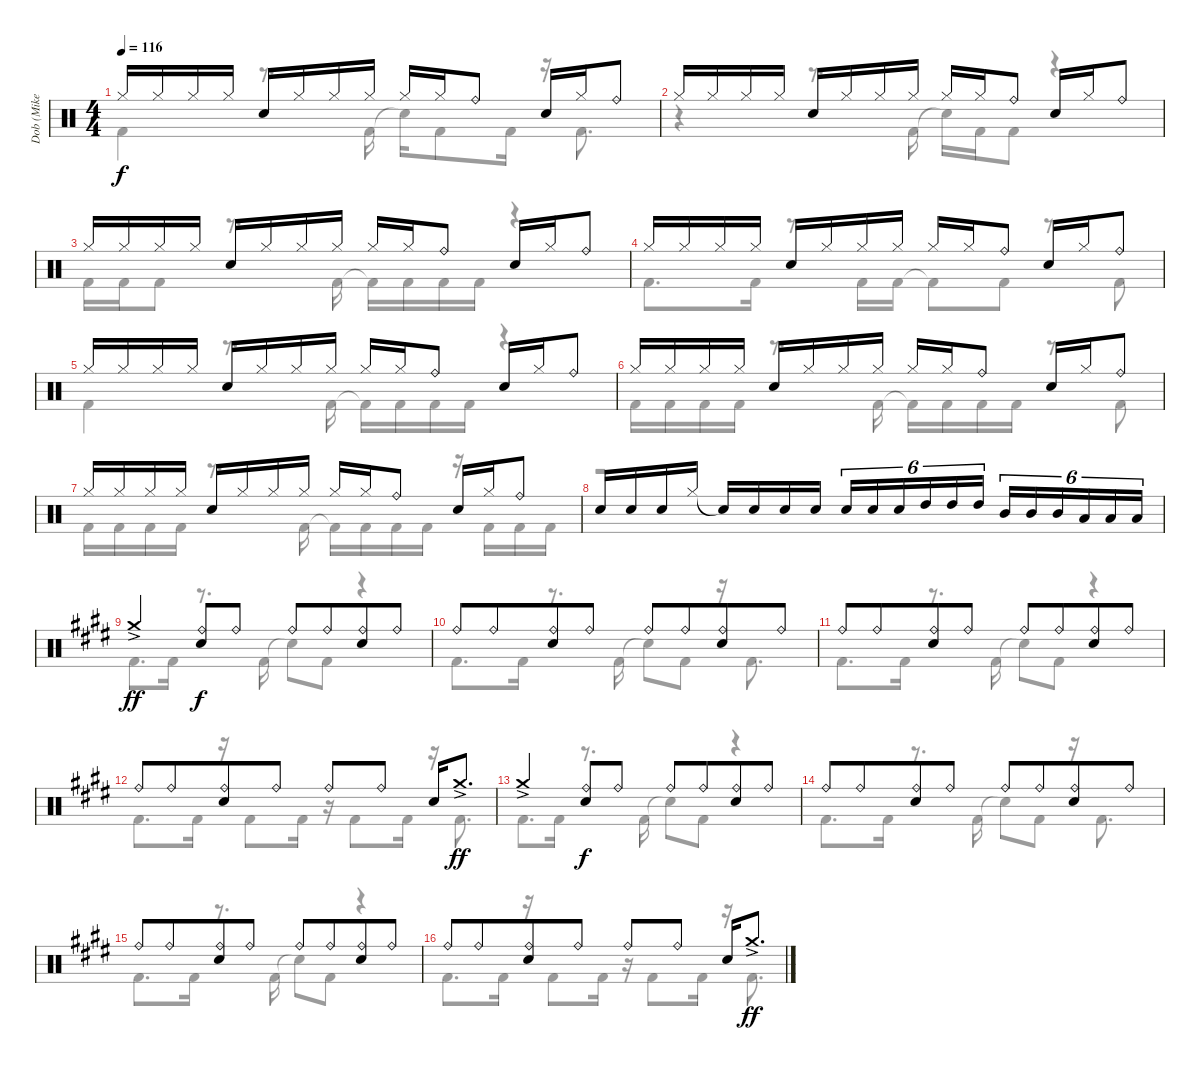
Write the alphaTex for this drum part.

\track ("Dob (Mike Terrana)" "Dob (Mike ") {instrument percussion}
\staff {score}
\articulation defaults
\voice
\ts (4 4)
\tempo 116
\clef neutral
\ks c "Hi-Hat (closed)".16{dy f} "Hi-Hat (closed)".16 "Hi-Hat (closed)".16 "Hi-Hat (closed)".16 "Electric Snare (hit)".16 "Hi-Hat (closed)".16 "Hi-Hat (closed)".16 "Hi-Hat (closed)".16 "Hi-Hat (closed)".16 "Hi-Hat (closed)".16 "Ride (bell)".8 "Electric Snare (hit)".16 "Hi-Hat (closed)".16 "Ride (bell)".8
|
"Hi-Hat (closed)".16 "Hi-Hat (closed)".16 "Hi-Hat (closed)".16 "Hi-Hat (closed)".16 "Electric Snare (hit)".16 "Hi-Hat (closed)".16 "Hi-Hat (closed)".16 "Hi-Hat (closed)".16 "Hi-Hat (closed)".16 "Hi-Hat (closed)".16 "Ride (bell)".8 "Electric Snare (hit)".16 "Hi-Hat (closed)".16 "Ride (bell)".8 |
"Hi-Hat (closed)".16 "Hi-Hat (closed)".16 "Hi-Hat (closed)".16 "Hi-Hat (closed)".16 "Electric Snare (hit)".16 "Hi-Hat (closed)".16 "Hi-Hat (closed)".16 "Hi-Hat (closed)".16 "Hi-Hat (closed)".16 "Hi-Hat (closed)".16 "Ride (bell)".8 "Electric Snare (hit)".16 "Hi-Hat (closed)".16 "Ride (bell)".8 |
"Hi-Hat (closed)".16 "Hi-Hat (closed)".16 "Hi-Hat (closed)".16 "Hi-Hat (closed)".16 "Electric Snare (hit)".16 "Hi-Hat (closed)".16 "Hi-Hat (closed)".16 "Hi-Hat (closed)".16 "Hi-Hat (closed)".16 "Hi-Hat (closed)".16 "Ride (bell)".8 "Electric Snare (hit)".16 "Hi-Hat (closed)".16 "Ride (bell)".8 |
"Hi-Hat (closed)".16 "Hi-Hat (closed)".16 "Hi-Hat (closed)".16 "Hi-Hat (closed)".16 "Electric Snare (hit)".16 "Hi-Hat (closed)".16 "Hi-Hat (closed)".16 "Hi-Hat (closed)".16 "Hi-Hat (closed)".16 "Hi-Hat (closed)".16 "Ride (bell)".8 "Electric Snare (hit)".16 "Hi-Hat (closed)".16 "Ride (bell)".8 |
"Hi-Hat (closed)".16 "Hi-Hat (closed)".16 "Hi-Hat (closed)".16 "Hi-Hat (closed)".16 "Electric Snare (hit)".16 "Hi-Hat (closed)".16 "Hi-Hat (closed)".16 "Hi-Hat (closed)".16 "Hi-Hat (closed)".16 "Hi-Hat (closed)".16 "Ride (bell)".8 "Electric Snare (hit)".16 "Hi-Hat (closed)".16 "Ride (bell)".8 |
"Hi-Hat (closed)".16 "Hi-Hat (closed)".16 "Hi-Hat (closed)".16 "Hi-Hat (closed)".16 "Electric Snare (hit)".16 "Hi-Hat (closed)".16 "Hi-Hat (closed)".16 "Hi-Hat (closed)".16 "Hi-Hat (closed)".16 "Hi-Hat (closed)".16 "Ride (bell)".8 "Electric Snare (hit)".16 "Hi-Hat (closed)".16 "Ride (bell)".8 |
"Electric Snare (hit)".16 "Electric Snare (hit)".16 "Electric Snare (hit)".16 "Hi-Hat (closed)".16 "Snare (hit)"{t}.16 "Electric Snare (hit)".16 "Electric Snare (hit)".16 "Electric Snare (hit)".16 "Electric Snare (hit)".16{tu (6 4)} "Electric Snare (hit)".16{tu (6 4)} "Electric Snare (hit)".16{tu (6 4)} "High Tom (hit)".16{tu (6 4)} "High Tom (hit)".16{tu (6 4)} "High Tom (hit)".16{tu (6 4)} "Mid Tom (hit)".16{tu (6 4)} "Mid Tom (hit)".16{tu (6 4)} "Mid Tom (hit)".16{tu (6 4)} "Low Tom (hit)".16{tu (6 4)} "Low Tom (hit)".16{tu (6 4)} "Low Tom (hit)".16{tu (6 4)} |
\ks e "Crash medium (hit)"{ac}.4{dy ff}
("Ride (bell)" "Electric Snare (hit)").8{dy f} "Ride (bell)".8 "Ride (bell)".8 "Ride (bell)".8{beam merge} ("Ride (bell)" "Electric Snare (hit)").8 "Ride (bell)".8 |
"Ride (bell)".8 "Ride (bell)".8{beam merge} ("Ride (bell)" "Electric Snare (hit)").8 "Ride (bell)".8 "Ride (bell)".8 "Ride (bell)".8{beam merge} ("Ride (bell)" "Electric Snare (hit)").8 "Ride (bell)".8 |
"Ride (bell)".8 "Ride (bell)".8{beam merge} ("Ride (bell)" "Electric Snare (hit)").8 "Ride (bell)".8 "Ride (bell)".8 "Ride (bell)".8{beam merge} ("Ride (bell)" "Electric Snare (hit)").8 "Ride (bell)".8 |
"Ride (bell)".8 "Ride (bell)".8{beam merge} ("Ride (bell)" "Electric Snare (hit)").8 "Ride (bell)".8 "Ride (bell)".8 "Ride (bell)".8 "Electric Snare (hit)".16 "Crash medium (hit)"{ac}.8{d dy ff} |
"Crash medium (hit)"{ac}.4 ("Ride (bell)" "Electric Snare (hit)").8{dy f} "Ride (bell)".8 "Ride (bell)".8 "Ride (bell)".8{beam merge} ("Ride (bell)" "Electric Snare (hit)").8 "Ride (bell)".8 |
"Ride (bell)".8 "Ride (bell)".8{beam merge} ("Ride (bell)" "Electric Snare (hit)").8 "Ride (bell)".8 "Ride (bell)".8 "Ride (bell)".8{beam merge} ("Ride (bell)" "Electric Snare (hit)").8 "Ride (bell)".8 |
"Ride (bell)".8 "Ride (bell)".8{beam merge} ("Ride (bell)" "Electric Snare (hit)").8 "Ride (bell)".8 "Ride (bell)".8 "Ride (bell)".8{beam merge} ("Ride (bell)" "Electric Snare (hit)").8 "Ride (bell)".8 |
"Ride (bell)".8 "Ride (bell)".8{beam merge} ("Ride (bell)" "Electric Snare (hit)").8 "Ride (bell)".8 "Ride (bell)".8 "Ride (bell)".8 "Electric Snare (hit)".16 "Crash medium (hit)"{ac}.8{d dy ff}
\voice
\clef neutral
\ottava regular
\simile none
\ks c "Kick (hit) 2".4{dy f}
r.8{d} "Kick (hit) 2".16 "Snare (hit)"{t}.16 "Kick (hit) 2".8 "Kick (hit) 2".16 r.16 "Kick (hit) 2".8{d} |
r.4 r.8{d} "Kick (hit) 2".16 "Snare (hit)"{t}.16 "Kick (hit) 2".16 "Kick (hit) 2".8 r.4 |
"Kick (hit) 2".16 "Kick (hit) 2".16 "Kick (hit) 2".8 r.8{d} "Kick (hit) 2".16 "Kick (hit) 2"{t}.16 "Kick (hit) 2".16 "Kick (hit) 2".16 "Kick (hit) 2".16 r.4 |
"Kick (hit) 2".8{d} "Kick (hit) 2".16 r.8 "Kick (hit) 2".16 "Kick (hit) 2".16 "Kick (hit) 2"{t}.8 "Kick (hit) 2".8 r.8 "Kick (hit) 2".8 |
"Kick (hit) 2".4 r.8{d} "Kick (hit) 2".16 "Kick (hit) 2"{t}.16 "Kick (hit) 2".16 "Kick (hit) 2".16 "Kick (hit) 2".16 r.4 |
"Kick (hit) 2".16 "Kick (hit) 2".16 "Kick (hit) 2".16 "Kick (hit) 2".16 r.8{d} "Kick (hit) 2".16 "Kick (hit) 2"{t}.16 "Kick (hit) 2".16 "Kick (hit) 2".16 "Kick (hit) 2".16 r.8 "Kick (hit) 2".8 |
"Kick (hit) 2".16 "Kick (hit) 2".16 "Kick (hit) 2".16 "Kick (hit) 2".16 r.8{d} "Kick (hit) 2".16 "Kick (hit) 2"{t}.16 "Kick (hit) 2".16 "Kick (hit) 2".16 "Kick (hit) 2".16 r.16 "Kick (hit) 2".16 "Kick (hit) 2".16 "Kick (hit) 2".16 |
r.1 |
\ks e "Kick (hit) 2".8{d} "Kick (hit) 2".16
r.8{d} "Kick (hit) 2".16 "Snare (hit)"{t}.8 "Kick (hit) 2".8 r.4 |
"Kick (hit) 2".8{d} "Kick (hit) 2".16 r.8{d} "Kick (hit) 2".16 "Snare (hit)"{t}.8 "Kick (hit) 2".8 r.16 "Kick (hit) 2".8{d} |
"Kick (hit) 2".8{d} "Kick (hit) 2".16 r.8{d} "Kick (hit) 2".16 "Snare (hit)"{t}.8 "Kick (hit) 2".8 r.4 |
"Kick (hit) 2".8{d} "Kick (hit) 2".16 r.16 "Kick (hit) 2".8 "Kick (hit) 2".16 r.16 "Kick (hit) 2".8 "Kick (hit) 2".16 r.16 "Kick (hit) 2".8{d} |
"Kick (hit) 2".8{d} "Kick (hit) 2".16 r.8{d} "Kick (hit) 2".16 "Snare (hit)"{t}.8 "Kick (hit) 2".8 r.4 |
"Kick (hit) 2".8{d} "Kick (hit) 2".16 r.8{d} "Kick (hit) 2".16 "Snare (hit)"{t}.8 "Kick (hit) 2".8 r.16 "Kick (hit) 2".8{d} |
"Kick (hit) 2".8{d} "Kick (hit) 2".16 r.8{d} "Kick (hit) 2".16 "Snare (hit)"{t}.8 "Kick (hit) 2".8 r.4 |
"Kick (hit) 2".8{d} "Kick (hit) 2".16 r.16 "Kick (hit) 2".8 "Kick (hit) 2".16 r.16 "Kick (hit) 2".8 "Kick (hit) 2".16 r.16 "Kick (hit) 2".8{d}
